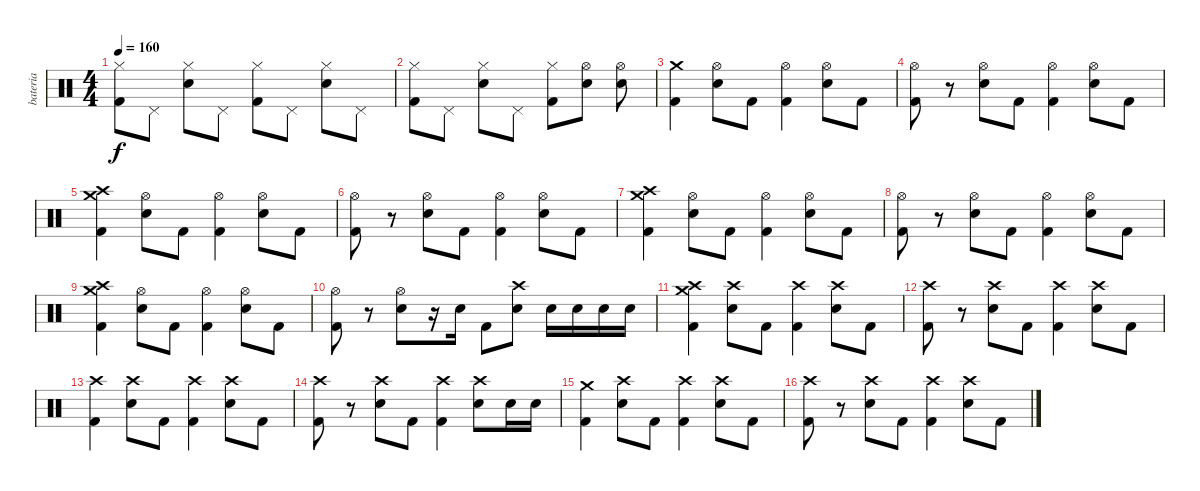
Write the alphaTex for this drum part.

\track ("bateria" "bateria") {instrument percussion}
\staff {score}
\articulation defaults
\ts (4 4)
\tempo 160
\clef neutral
\ks c
("Hi-Hat (closed)" "Kick (hit) 2").8{dy f} "Pedal Hi-Hat (hit)".8 ("Hi-Hat (closed)" "Snare (hit) 2").8 "Pedal Hi-Hat (hit)".8 ("Hi-Hat (closed)" "Kick (hit) 2").8 "Pedal Hi-Hat (hit)".8 ("Hi-Hat (closed)" "Snare (hit) 2").8 "Pedal Hi-Hat (hit)".8 |
("Hi-Hat (closed)" "Kick (hit) 2").8 "Pedal Hi-Hat (hit)".8 ("Hi-Hat (closed)" "Snare (hit) 2").8 "Pedal Hi-Hat (hit)".8 ("Hi-Hat (closed)" "Kick (hit) 2").8 ("Hi-Hat (open)" "Snare (hit) 2").8 ("Hi-Hat (open)" "Snare (hit) 2").8 |
("Crash medium (hit)" "Kick (hit) 2").4 ("Hi-Hat (open)" "Snare (hit) 2").8 "Kick (hit) 2".8 ("Hi-Hat (open)" "Kick (hit) 2").4 ("Hi-Hat (open)" "Snare (hit) 2").8 "Kick (hit) 2".8 |
("Hi-Hat (open)" "Kick (hit) 2").8 r.8 ("Hi-Hat (open)" "Snare (hit) 2").8 "Kick (hit) 2".8 ("Hi-Hat (open)" "Kick (hit) 2").4 ("Hi-Hat (open)" "Snare (hit) 2").8 "Kick (hit) 2".8 |
("Crash medium (hit)" "Crash high (hit)" "Kick (hit) 2").4 ("Hi-Hat (open)" "Snare (hit) 2").8 "Kick (hit) 2".8 ("Hi-Hat (open)" "Kick (hit) 2").4 ("Hi-Hat (open)" "Snare (hit) 2").8 "Kick (hit) 2".8 |
("Hi-Hat (open)" "Kick (hit) 2").8 r.8 ("Hi-Hat (open)" "Snare (hit) 2").8 "Kick (hit) 2".8 ("Hi-Hat (open)" "Kick (hit) 2").4 ("Hi-Hat (open)" "Snare (hit) 2").8 "Kick (hit) 2".8 |
("Crash medium (hit)" "Crash high (hit)" "Kick (hit) 2").4 ("Hi-Hat (open)" "Snare (hit) 2").8 "Kick (hit) 2".8 ("Hi-Hat (open)" "Kick (hit) 2").4 ("Hi-Hat (open)" "Snare (hit) 2").8 "Kick (hit) 2".8 |
("Hi-Hat (open)" "Kick (hit) 2").8 r.8 ("Hi-Hat (open)" "Snare (hit) 2").8 "Kick (hit) 2".8 ("Hi-Hat (open)" "Kick (hit) 2").4 ("Hi-Hat (open)" "Snare (hit) 2").8 "Kick (hit) 2".8 |
("Crash medium (hit)" "Crash high (hit)" "Kick (hit) 2").4 ("Hi-Hat (open)" "Snare (hit) 2").8 "Kick (hit) 2".8 ("Hi-Hat (open)" "Kick (hit) 2").4 ("Hi-Hat (open)" "Snare (hit) 2").8 "Kick (hit) 2".8 |
("Hi-Hat (open)" "Kick (hit) 2").8 r.8 ("Hi-Hat (open)" "Snare (hit) 2").8 r.16 "Snare (hit) 2".16 "Kick (hit) 2".8 ("Crash high (hit)" "Snare (hit) 2").8 "Snare (hit) 2".16 "Snare (hit) 2".16 "Snare (hit) 2".16 "Snare (hit) 2".16 |
("Crash medium (hit)" "Crash high (hit)" "Kick (hit) 2").4 ("Crash high (hit)" "Snare (hit) 2").8 "Kick (hit) 2".8 ("Crash high (hit)" "Kick (hit) 2").4 ("Crash high (hit)" "Snare (hit) 2").8 "Kick (hit) 2".8 |
("Crash high (hit)" "Kick (hit) 2").8 r.8 ("Crash high (hit)" "Snare (hit) 2").8 "Kick (hit) 2".8 ("Crash high (hit)" "Kick (hit) 2").4 ("Crash high (hit)" "Snare (hit) 2").8 "Kick (hit) 2".8 |
("Crash high (hit)" "Kick (hit) 2").4 ("Crash high (hit)" "Snare (hit) 2").8 "Kick (hit) 2".8 ("Crash high (hit)" "Kick (hit) 2").4 ("Crash high (hit)" "Snare (hit) 2").8 "Kick (hit) 2".8 |
("Crash high (hit)" "Kick (hit) 2").8 r.8 ("Crash high (hit)" "Snare (hit) 2").8 "Kick (hit) 2".8 ("Crash high (hit)" "Kick (hit) 2").4 ("Crash high (hit)" "Snare (hit) 2").8 "Snare (hit) 2".16 "Snare (hit) 2".16 |
("Crash medium (hit)" "Kick (hit) 2").4 ("Crash high (hit)" "Snare (hit) 2").8 "Kick (hit) 2".8 ("Crash high (hit)" "Kick (hit) 2").4 ("Crash high (hit)" "Snare (hit) 2").8 "Kick (hit) 2".8 |
("Crash high (hit)" "Kick (hit) 2").8 r.8 ("Crash high (hit)" "Snare (hit) 2").8 "Kick (hit) 2".8 ("Crash high (hit)" "Kick (hit) 2").4 ("Crash high (hit)" "Snare (hit) 2").8 "Kick (hit) 2".8
